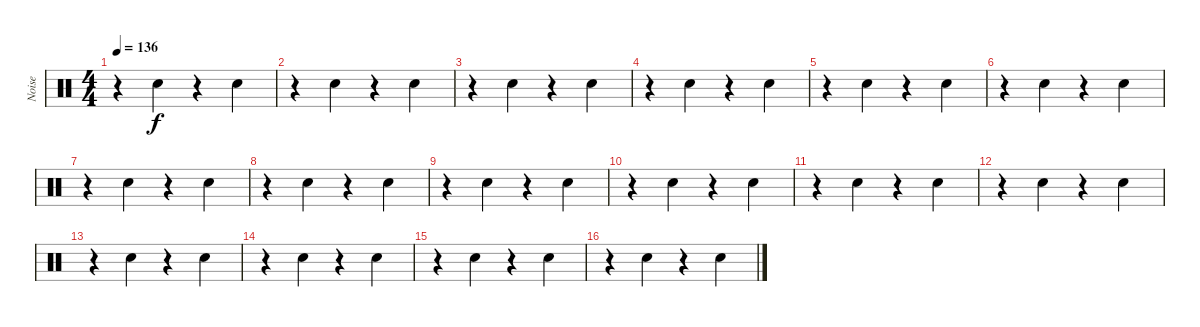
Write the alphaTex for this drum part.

\track ("Noise" "Noise") {instrument percussion}
\staff {score}
\articulation defaults
\ts (4 4)
\tempo 136
\clef neutral
\ks c
r.4{dy f} "Snare (hit) 2".4 r.4 "Snare (hit) 2".4 |
r.4 "Snare (hit) 2".4 r.4 "Snare (hit) 2".4 |
r.4 "Snare (hit) 2".4 r.4 "Snare (hit) 2".4 |
r.4 "Snare (hit) 2".4 r.4 "Snare (hit) 2".4 |
r.4 "Snare (hit) 2".4 r.4 "Snare (hit) 2".4 |
r.4 "Snare (hit) 2".4 r.4 "Snare (hit) 2".4 |
r.4 "Snare (hit) 2".4 r.4 "Snare (hit) 2".4 |
r.4 "Snare (hit) 2".4 r.4 "Snare (hit) 2".4 |
r.4 "Snare (hit) 2".4 r.4 "Snare (hit) 2".4 |
r.4 "Snare (hit) 2".4 r.4 "Snare (hit) 2".4 |
r.4 "Snare (hit) 2".4 r.4 "Snare (hit) 2".4 |
r.4 "Snare (hit) 2".4 r.4 "Snare (hit) 2".4 |
r.4 "Snare (hit) 2".4 r.4 "Snare (hit) 2".4 |
r.4 "Snare (hit) 2".4 r.4 "Snare (hit) 2".4 |
r.4 "Snare (hit) 2".4 r.4 "Snare (hit) 2".4 |
r.4 "Snare (hit) 2".4 r.4 "Snare (hit) 2".4
